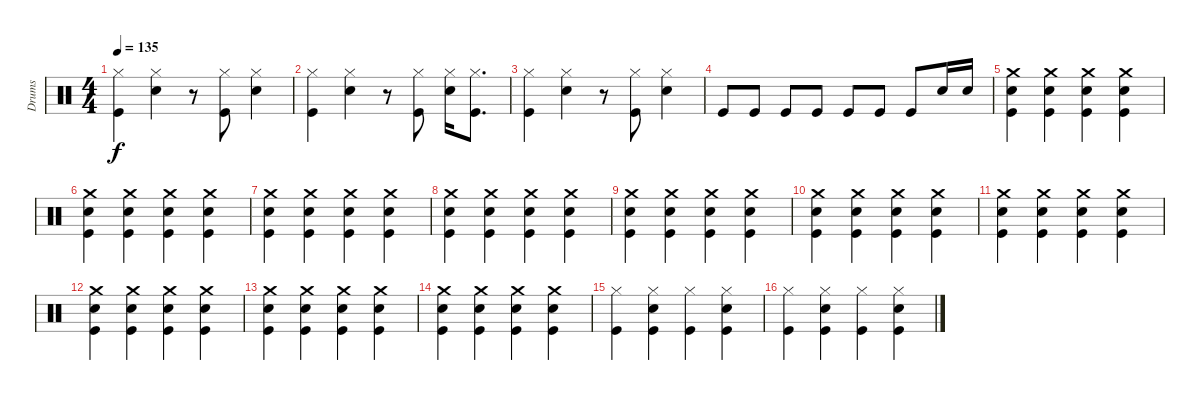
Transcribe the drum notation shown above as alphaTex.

\track ("Drums" "Drums") {instrument percussion}
\staff {score}
\articulation defaults
\ts (4 4)
\tempo 135
\clef neutral
\ks c
("Hi-Hat (closed)" "Kick (hit)").4{dy f} ("Hi-Hat (closed)" "Snare (hit) 2").4 r.8 ("Hi-Hat (closed)" "Kick (hit)").8 ("Hi-Hat (closed)" "Snare (hit) 2").4 |
("Hi-Hat (closed)" "Kick (hit)").4 ("Hi-Hat (closed)" "Snare (hit) 2").4 r.8 ("Hi-Hat (closed)" "Kick (hit)").8 ("Hi-Hat (closed)" "Snare (hit) 2").16 ("Hi-Hat (closed)" "Kick (hit)").8{d} |
("Hi-Hat (closed)" "Kick (hit)").4 ("Hi-Hat (closed)" "Snare (hit) 2").4 r.8 ("Hi-Hat (closed)" "Kick (hit)").8 ("Hi-Hat (closed)" "Snare (hit) 2").4 |
"Kick (hit)".8 "Kick (hit)".8 "Kick (hit)".8 "Kick (hit)".8 "Kick (hit)".8 "Kick (hit)".8 "Kick (hit)".8 "Snare (hit) 2".16 "Snare (hit) 2".16 |
("Crash medium (hit)" "Snare (hit) 2" "Kick (hit)").4 ("Crash medium (hit)" "Snare (hit) 2" "Kick (hit)").4 ("Crash medium (hit)" "Snare (hit) 2" "Kick (hit)").4 ("Crash medium (hit)" "Snare (hit) 2" "Kick (hit)").4 |
("Crash medium (hit)" "Snare (hit) 2" "Kick (hit)").4 ("Crash medium (hit)" "Snare (hit) 2" "Kick (hit)").4 ("Crash medium (hit)" "Snare (hit) 2" "Kick (hit)").4 ("Crash medium (hit)" "Snare (hit) 2" "Kick (hit)").4 |
("Crash medium (hit)" "Snare (hit) 2" "Kick (hit)").4 ("Crash medium (hit)" "Snare (hit) 2" "Kick (hit)").4 ("Crash medium (hit)" "Snare (hit) 2" "Kick (hit)").4 ("Crash medium (hit)" "Snare (hit) 2" "Kick (hit)").4 |
("Crash medium (hit)" "Snare (hit) 2" "Kick (hit)").4 ("Crash medium (hit)" "Snare (hit) 2" "Kick (hit)").4 ("Crash medium (hit)" "Snare (hit) 2" "Kick (hit)").4 ("Crash medium (hit)" "Snare (hit) 2" "Kick (hit)").4 |
("Crash medium (hit)" "Snare (hit) 2" "Kick (hit)").4 ("Crash medium (hit)" "Snare (hit) 2" "Kick (hit)").4 ("Crash medium (hit)" "Snare (hit) 2" "Kick (hit)").4 ("Crash medium (hit)" "Snare (hit) 2" "Kick (hit)").4 |
("Crash medium (hit)" "Snare (hit) 2" "Kick (hit)").4 ("Crash medium (hit)" "Snare (hit) 2" "Kick (hit)").4 ("Crash medium (hit)" "Snare (hit) 2" "Kick (hit)").4 ("Crash medium (hit)" "Snare (hit) 2" "Kick (hit)").4 |
("Crash medium (hit)" "Snare (hit) 2" "Kick (hit)").4 ("Crash medium (hit)" "Snare (hit) 2" "Kick (hit)").4 ("Crash medium (hit)" "Snare (hit) 2" "Kick (hit)").4 ("Crash medium (hit)" "Snare (hit) 2" "Kick (hit)").4 |
("Crash medium (hit)" "Snare (hit) 2" "Kick (hit)").4 ("Crash medium (hit)" "Snare (hit) 2" "Kick (hit)").4 ("Crash medium (hit)" "Snare (hit) 2" "Kick (hit)").4 ("Crash medium (hit)" "Snare (hit) 2" "Kick (hit)").4 |
("Crash medium (hit)" "Snare (hit) 2" "Kick (hit)").4 ("Crash medium (hit)" "Snare (hit) 2" "Kick (hit)").4 ("Crash medium (hit)" "Snare (hit) 2" "Kick (hit)").4 ("Crash medium (hit)" "Snare (hit) 2" "Kick (hit)").4 |
("Crash medium (hit)" "Snare (hit) 2" "Kick (hit)").4 ("Crash medium (hit)" "Snare (hit) 2" "Kick (hit)").4 ("Crash medium (hit)" "Snare (hit) 2" "Kick (hit)").4 ("Crash medium (hit)" "Snare (hit) 2" "Kick (hit)").4 |
("Hi-Hat (closed)" "Kick (hit)").4 ("Hi-Hat (closed)" "Snare (hit) 2" "Kick (hit)").4 ("Hi-Hat (closed)" "Kick (hit)").4 ("Hi-Hat (closed)" "Snare (hit) 2" "Kick (hit)").4 |
("Hi-Hat (closed)" "Kick (hit)").4 ("Hi-Hat (closed)" "Snare (hit) 2" "Kick (hit)").4 ("Hi-Hat (closed)" "Kick (hit)").4 ("Hi-Hat (closed)" "Snare (hit) 2" "Kick (hit)").4
